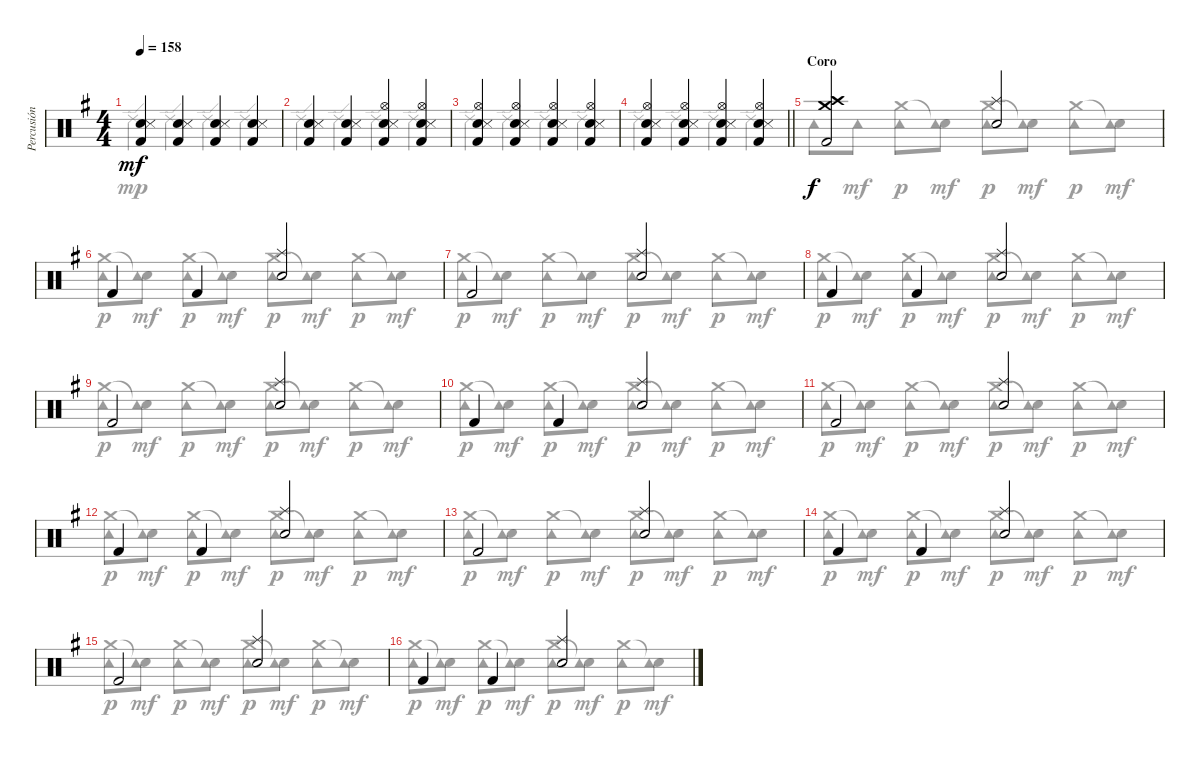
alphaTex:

\track ("Percusión" "Percusión") {instrument percussion}
\staff {score}
\articulation defaults
\voice
\ts (4 4)
\tempo 158
\clef neutral
\ks g
("Hand Clap (hit)" "Snare (side stick) 3" "Kick (hit) 2").4{dy mf} ("Hand Clap (hit)" "Snare (side stick) 3" "Kick (hit) 2").4 ("Hand Clap (hit)" "Snare (side stick) 3" "Kick (hit) 2").4 ("Hand Clap (hit)" "Snare (side stick) 3" "Kick (hit) 2").4 |
("Hand Clap (hit)" "Snare (side stick) 3" "Kick (hit) 2").4 ("Hand Clap (hit)" "Snare (side stick) 3" "Kick (hit) 2").4 ("Hi-Hat (open)" "Hand Clap (hit)" "Snare (side stick) 3" "Kick (hit) 2").4 ("Hi-Hat (open)" "Hand Clap (hit)" "Snare (side stick) 3" "Kick (hit) 2").4 |
("Hi-Hat (open)" "Hand Clap (hit)" "Snare (side stick) 3" "Kick (hit) 2").4 ("Hi-Hat (open)" "Hand Clap (hit)" "Snare (side stick) 3" "Kick (hit) 2").4 ("Hi-Hat (open)" "Hand Clap (hit)" "Snare (side stick) 3" "Kick (hit) 2").4 ("Hi-Hat (open)" "Hand Clap (hit)" "Snare (side stick) 3" "Kick (hit) 2").4 |
\barLineRight lightlight
("Hi-Hat (open)" "Hand Clap (hit)" "Snare (side stick) 3" "Kick (hit) 2").4 ("Hi-Hat (open)" "Hand Clap (hit)" "Snare (side stick) 3" "Kick (hit) 2").4 ("Hi-Hat (open)" "Hand Clap (hit)" "Snare (side stick) 3" "Kick (hit) 2").4 ("Hi-Hat (open)" "Hand Clap (hit)" "Snare (side stick) 3" "Kick (hit) 2").4 |
\section ("" "Coro")
("Crash medium (hit)" "Crash high (hit)" "Kick (hit) 2").2{dy f} ("Splash (hit)" "Snare (hit) 2").2 |
"Kick (hit) 2".4 "Kick (hit) 2".4 ("Splash (hit)" "Snare (hit) 2").2 |
"Kick (hit) 2".2 ("Splash (hit)" "Snare (hit) 2").2 |
"Kick (hit) 2".4 "Kick (hit) 2".4 ("Splash (hit)" "Snare (hit) 2").2 |
"Kick (hit) 2".2 ("Splash (hit)" "Snare (hit) 2").2 |
"Kick (hit) 2".4 "Kick (hit) 2".4 ("Splash (hit)" "Snare (hit) 2").2 |
"Kick (hit) 2".2 ("Splash (hit)" "Snare (hit) 2").2 |
"Kick (hit) 2".4 "Kick (hit) 2".4 ("Splash (hit)" "Snare (hit) 2").2 |
"Kick (hit) 2".2 ("Splash (hit)" "Snare (hit) 2").2 |
"Kick (hit) 2".4 "Kick (hit) 2".4 ("Splash (hit)" "Snare (hit) 2").2 |
"Kick (hit) 2".2 ("Splash (hit)" "Snare (hit) 2").2 |
"Kick (hit) 2".4 "Kick (hit) 2".4 ("Splash (hit)" "Snare (hit) 2").2
\voice
\clef neutral
\ottava regular
\simile none
\ks g "Ride (edge) 2".4{dy mp} "Ride (edge) 2".4 "Ride (edge) 2".4 "Ride (edge) 2".4
|
"Ride (edge) 2".4 "Ride (edge) 2".4 "Ride (edge) 2".4 "Ride (edge) 2".4 |
"Ride (edge) 2".4 "Ride (edge) 2".4 "Ride (edge) 2".4 "Ride (edge) 2".4 |
\barLineRight lightlight "Ride (edge) 2".4 "Ride (edge) 2".4 "Ride (edge) 2".4 "Ride (edge) 2".4
|
"Tambourine (hit)".8{dy f} "Tambourine (hit)".8{dy mf} ("Crash medium (hit)" "Tambourine (hit)").8{dy p} ("Snare (hit)"{t} "Tambourine (hit)").8{dy mf} ("Crash medium (hit)" "Tambourine (hit)").8{dy p} ("Snare (hit)"{t} "Tambourine (hit)").8{dy mf} ("Crash medium (hit)" "Tambourine (hit)").8{dy p} ("Snare (hit)"{t} "Tambourine (hit)").8{dy mf} |
("Crash medium (hit)" "Tambourine (hit)").8{dy p} ("Snare (hit)"{t} "Tambourine (hit)").8{dy mf} ("Crash medium (hit)" "Tambourine (hit)").8{dy p} ("Snare (hit)"{t} "Tambourine (hit)").8{dy mf} ("Crash medium (hit)" "Tambourine (hit)").8{dy p} ("Snare (hit)"{t} "Tambourine (hit)").8{dy mf} ("Crash medium (hit)" "Tambourine (hit)").8{dy p} ("Snare (hit)"{t} "Tambourine (hit)").8{dy mf} |
("Crash medium (hit)" "Tambourine (hit)").8{dy p} ("Snare (hit)"{t} "Tambourine (hit)").8{dy mf} ("Crash medium (hit)" "Tambourine (hit)").8{dy p} ("Snare (hit)"{t} "Tambourine (hit)").8{dy mf} ("Crash medium (hit)" "Tambourine (hit)").8{dy p} ("Snare (hit)"{t} "Tambourine (hit)").8{dy mf} ("Crash medium (hit)" "Tambourine (hit)").8{dy p} ("Snare (hit)"{t} "Tambourine (hit)").8{dy mf} |
("Crash medium (hit)" "Tambourine (hit)").8{dy p} ("Snare (hit)"{t} "Tambourine (hit)").8{dy mf} ("Crash medium (hit)" "Tambourine (hit)").8{dy p} ("Snare (hit)"{t} "Tambourine (hit)").8{dy mf} ("Crash medium (hit)" "Tambourine (hit)").8{dy p} ("Snare (hit)"{t} "Tambourine (hit)").8{dy mf} ("Crash medium (hit)" "Tambourine (hit)").8{dy p} ("Snare (hit)"{t} "Tambourine (hit)").8{dy mf} |
("Crash medium (hit)" "Tambourine (hit)").8{dy p} ("Snare (hit)"{t} "Tambourine (hit)").8{dy mf} ("Crash medium (hit)" "Tambourine (hit)").8{dy p} ("Snare (hit)"{t} "Tambourine (hit)").8{dy mf} ("Crash medium (hit)" "Tambourine (hit)").8{dy p} ("Snare (hit)"{t} "Tambourine (hit)").8{dy mf} ("Crash medium (hit)" "Tambourine (hit)").8{dy p} ("Snare (hit)"{t} "Tambourine (hit)").8{dy mf} |
("Crash medium (hit)" "Tambourine (hit)").8{dy p} ("Snare (hit)"{t} "Tambourine (hit)").8{dy mf} ("Crash medium (hit)" "Tambourine (hit)").8{dy p} ("Snare (hit)"{t} "Tambourine (hit)").8{dy mf} ("Crash medium (hit)" "Tambourine (hit)").8{dy p} ("Snare (hit)"{t} "Tambourine (hit)").8{dy mf} ("Crash medium (hit)" "Tambourine (hit)").8{dy p} ("Snare (hit)"{t} "Tambourine (hit)").8{dy mf} |
("Crash medium (hit)" "Tambourine (hit)").8{dy p} ("Snare (hit)"{t} "Tambourine (hit)").8{dy mf} ("Crash medium (hit)" "Tambourine (hit)").8{dy p} ("Snare (hit)"{t} "Tambourine (hit)").8{dy mf} ("Crash medium (hit)" "Tambourine (hit)").8{dy p} ("Snare (hit)"{t} "Tambourine (hit)").8{dy mf} ("Crash medium (hit)" "Tambourine (hit)").8{dy p} ("Snare (hit)"{t} "Tambourine (hit)").8{dy mf} |
("Crash medium (hit)" "Tambourine (hit)").8{dy p} ("Snare (hit)"{t} "Tambourine (hit)").8{dy mf} ("Crash medium (hit)" "Tambourine (hit)").8{dy p} ("Snare (hit)"{t} "Tambourine (hit)").8{dy mf} ("Crash medium (hit)" "Tambourine (hit)").8{dy p} ("Snare (hit)"{t} "Tambourine (hit)").8{dy mf} ("Crash medium (hit)" "Tambourine (hit)").8{dy p} ("Snare (hit)"{t} "Tambourine (hit)").8{dy mf} |
("Crash medium (hit)" "Tambourine (hit)").8{dy p} ("Snare (hit)"{t} "Tambourine (hit)").8{dy mf} ("Crash medium (hit)" "Tambourine (hit)").8{dy p} ("Snare (hit)"{t} "Tambourine (hit)").8{dy mf} ("Crash medium (hit)" "Tambourine (hit)").8{dy p} ("Snare (hit)"{t} "Tambourine (hit)").8{dy mf} ("Crash medium (hit)" "Tambourine (hit)").8{dy p} ("Snare (hit)"{t} "Tambourine (hit)").8{dy mf} |
("Crash medium (hit)" "Tambourine (hit)").8{dy p} ("Snare (hit)"{t} "Tambourine (hit)").8{dy mf} ("Crash medium (hit)" "Tambourine (hit)").8{dy p} ("Snare (hit)"{t} "Tambourine (hit)").8{dy mf} ("Crash medium (hit)" "Tambourine (hit)").8{dy p} ("Snare (hit)"{t} "Tambourine (hit)").8{dy mf} ("Crash medium (hit)" "Tambourine (hit)").8{dy p} ("Snare (hit)"{t} "Tambourine (hit)").8{dy mf} |
("Crash medium (hit)" "Tambourine (hit)").8{dy p} ("Snare (hit)"{t} "Tambourine (hit)").8{dy mf} ("Crash medium (hit)" "Tambourine (hit)").8{dy p} ("Snare (hit)"{t} "Tambourine (hit)").8{dy mf} ("Crash medium (hit)" "Tambourine (hit)").8{dy p} ("Snare (hit)"{t} "Tambourine (hit)").8{dy mf} ("Crash medium (hit)" "Tambourine (hit)").8{dy p} ("Snare (hit)"{t} "Tambourine (hit)").8{dy mf} |
("Crash medium (hit)" "Tambourine (hit)").8{dy p} ("Snare (hit)"{t} "Tambourine (hit)").8{dy mf} ("Crash medium (hit)" "Tambourine (hit)").8{dy p} ("Snare (hit)"{t} "Tambourine (hit)").8{dy mf} ("Crash medium (hit)" "Tambourine (hit)").8{dy p} ("Snare (hit)"{t} "Tambourine (hit)").8{dy mf} ("Crash medium (hit)" "Tambourine (hit)").8{dy p} ("Snare (hit)"{t} "Tambourine (hit)").8{dy mf}
